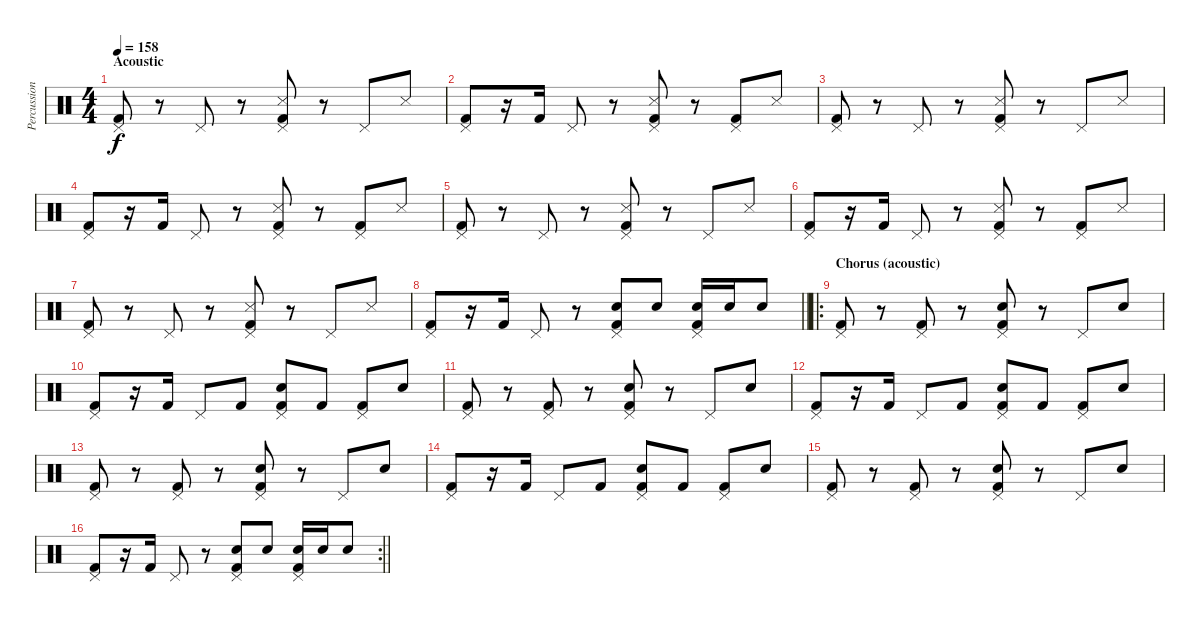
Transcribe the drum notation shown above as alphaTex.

\track ("Percussion" "Percussion") {instrument percussion}
\staff {score}
\articulation defaults
\ts (4 4)
\section ("" "Acoustic")
\tempo 158
\clef neutral
\ks c
("Pedal Hi-Hat (hit)" "Kick (hit) 2").8{dy f} r.8 "Pedal Hi-Hat (hit)".8 r.8 ("Pedal Hi-Hat (hit)" "Snare (side stick) 3" "Kick (hit) 2").8 r.8 "Pedal Hi-Hat (hit)".8 "Snare (side stick) 3".8 |
("Pedal Hi-Hat (hit)" "Kick (hit) 2").8 r.16 "Kick (hit) 2".16 "Pedal Hi-Hat (hit)".8 r.8 ("Pedal Hi-Hat (hit)" "Snare (side stick) 3" "Kick (hit) 2").8 r.8 ("Pedal Hi-Hat (hit)" "Kick (hit) 2").8 "Snare (side stick) 3".8 |
("Pedal Hi-Hat (hit)" "Kick (hit) 2").8 r.8 "Pedal Hi-Hat (hit)".8 r.8 ("Pedal Hi-Hat (hit)" "Snare (side stick) 3" "Kick (hit) 2").8 r.8 "Pedal Hi-Hat (hit)".8 "Snare (side stick) 3".8 |
("Pedal Hi-Hat (hit)" "Kick (hit) 2").8 r.16 "Kick (hit) 2".16 "Pedal Hi-Hat (hit)".8 r.8 ("Pedal Hi-Hat (hit)" "Snare (side stick) 3" "Kick (hit) 2").8 r.8 ("Pedal Hi-Hat (hit)" "Kick (hit) 2").8 "Snare (side stick) 3".8 |
("Pedal Hi-Hat (hit)" "Kick (hit) 2").8 r.8 "Pedal Hi-Hat (hit)".8 r.8 ("Pedal Hi-Hat (hit)" "Snare (side stick) 3" "Kick (hit) 2").8 r.8 "Pedal Hi-Hat (hit)".8 "Snare (side stick) 3".8 |
("Pedal Hi-Hat (hit)" "Kick (hit) 2").8 r.16 "Kick (hit) 2".16 "Pedal Hi-Hat (hit)".8 r.8 ("Pedal Hi-Hat (hit)" "Snare (side stick) 3" "Kick (hit) 2").8 r.8 ("Pedal Hi-Hat (hit)" "Kick (hit) 2").8 "Snare (side stick) 3".8 |
("Pedal Hi-Hat (hit)" "Kick (hit) 2").8 r.8 "Pedal Hi-Hat (hit)".8 r.8 ("Pedal Hi-Hat (hit)" "Snare (side stick) 3" "Kick (hit) 2").8 r.8 "Pedal Hi-Hat (hit)".8 "Snare (side stick) 3".8 |
\barLineRight lightlight
("Pedal Hi-Hat (hit)" "Kick (hit) 2").8 r.16 "Kick (hit) 2".16 "Pedal Hi-Hat (hit)".8 r.8 ("Pedal Hi-Hat (hit)" "Electric Snare (hit)" "Kick (hit) 2").8 "Electric Snare (hit)".8 ("Pedal Hi-Hat (hit)" "Electric Snare (hit)" "Kick (hit) 2").16 "Electric Snare (hit)".16 "Electric Snare (hit)".8 |
\ro
\section ("" "Chorus (acoustic)")
("Pedal Hi-Hat (hit)" "Kick (hit) 2").8 r.8 ("Pedal Hi-Hat (hit)" "Kick (hit) 2").8 r.8 ("Pedal Hi-Hat (hit)" "Electric Snare (hit)" "Kick (hit) 2").8 r.8 "Pedal Hi-Hat (hit)".8 "Electric Snare (hit)".8 |
("Pedal Hi-Hat (hit)" "Kick (hit) 2").8 r.16 "Kick (hit) 2".16 "Pedal Hi-Hat (hit)".8 "Kick (hit) 2".8 ("Pedal Hi-Hat (hit)" "Electric Snare (hit)" "Kick (hit) 2").8 "Kick (hit) 2".8 ("Pedal Hi-Hat (hit)" "Kick (hit) 2").8 "Electric Snare (hit)".8 |
("Pedal Hi-Hat (hit)" "Kick (hit) 2").8 r.8 ("Pedal Hi-Hat (hit)" "Kick (hit) 2").8 r.8 ("Pedal Hi-Hat (hit)" "Electric Snare (hit)" "Kick (hit) 2").8 r.8 "Pedal Hi-Hat (hit)".8 "Electric Snare (hit)".8 |
("Pedal Hi-Hat (hit)" "Kick (hit) 2").8 r.16 "Kick (hit) 2".16 "Pedal Hi-Hat (hit)".8 "Kick (hit) 2".8 ("Pedal Hi-Hat (hit)" "Electric Snare (hit)" "Kick (hit) 2").8 "Kick (hit) 2".8 ("Pedal Hi-Hat (hit)" "Kick (hit) 2").8 "Electric Snare (hit)".8 |
("Pedal Hi-Hat (hit)" "Kick (hit) 2").8 r.8 ("Pedal Hi-Hat (hit)" "Kick (hit) 2").8 r.8 ("Pedal Hi-Hat (hit)" "Electric Snare (hit)" "Kick (hit) 2").8 r.8 "Pedal Hi-Hat (hit)".8 "Electric Snare (hit)".8 |
("Pedal Hi-Hat (hit)" "Kick (hit) 2").8 r.16 "Kick (hit) 2".16 "Pedal Hi-Hat (hit)".8 "Kick (hit) 2".8 ("Pedal Hi-Hat (hit)" "Electric Snare (hit)" "Kick (hit) 2").8 "Kick (hit) 2".8 ("Pedal Hi-Hat (hit)" "Kick (hit) 2").8 "Electric Snare (hit)".8 |
("Pedal Hi-Hat (hit)" "Kick (hit) 2").8 r.8 ("Pedal Hi-Hat (hit)" "Kick (hit) 2").8 r.8 ("Pedal Hi-Hat (hit)" "Electric Snare (hit)" "Kick (hit) 2").8 r.8 "Pedal Hi-Hat (hit)".8 "Electric Snare (hit)".8 |
\rc 2
\barLineRight lightlight
("Pedal Hi-Hat (hit)" "Kick (hit) 2").8 r.16 "Kick (hit) 2".16 "Pedal Hi-Hat (hit)".8 r.8 ("Pedal Hi-Hat (hit)" "Electric Snare (hit)" "Kick (hit) 2").8 "Electric Snare (hit)".8 ("Pedal Hi-Hat (hit)" "Electric Snare (hit)" "Kick (hit) 2").16 "Electric Snare (hit)".16 "Electric Snare (hit)".8
